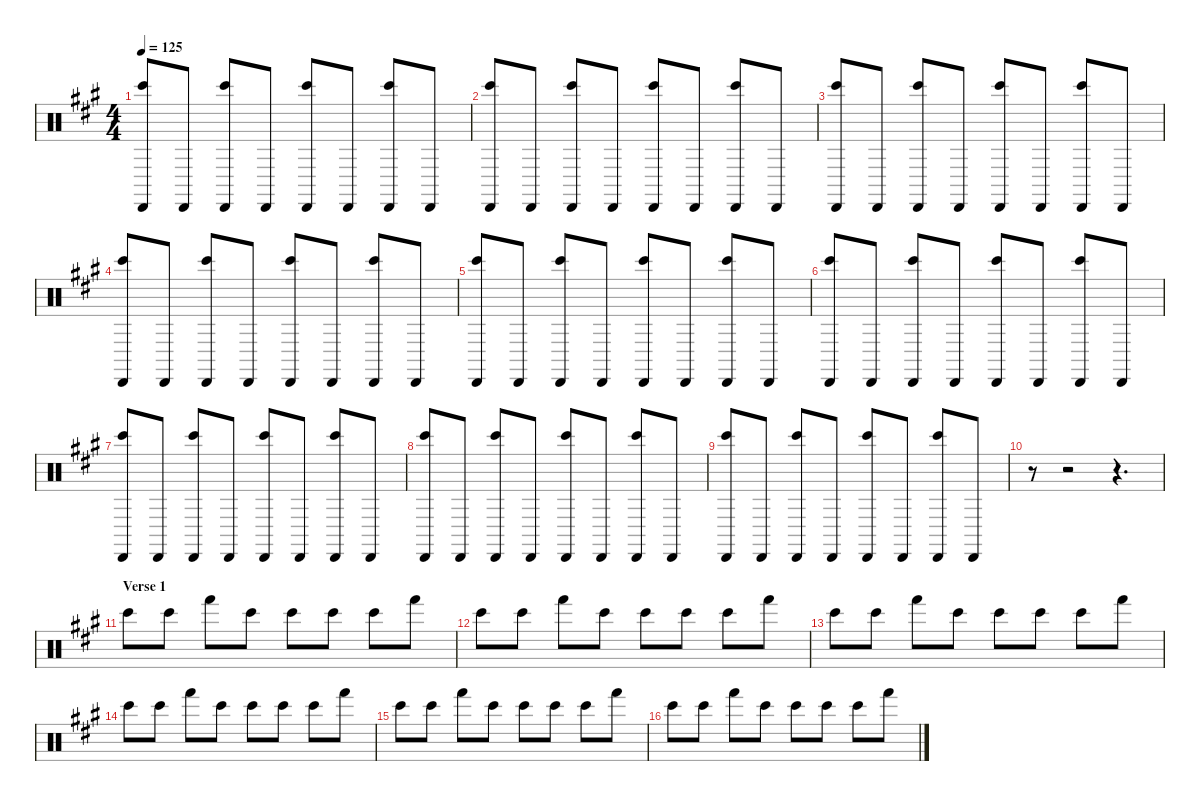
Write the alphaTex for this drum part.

\defaultSystemsLayout 4
\hideDynamics
\bracketExtendMode nobrackets
\singleTrackTrackNamePolicy hidden
\multiTrackTrackNamePolicy hidden
\otherSystemsTrackNameOrientation horizontal
\track ("Percussion" "drm.") {instrument percussion}
\staff {score}
\articulation defaults
\ts (4 4)
\tempo 125
\clef neutral
\ks a
("Cabasa (hit)"{acc forcenatural} "Bongo High (hit)"{acc forcenatural}).8{dy f beam Up} "Cabasa (hit)"{acc forcenatural}.8{beam Up} ("Cabasa (hit)"{acc forcenatural} "Bongo High (hit)"{acc forcenatural}).8{beam Up} "Cabasa (hit)"{acc forcenatural}.8{beam Up} ("Cabasa (hit)"{acc forcenatural} "Bongo High (hit)"{acc forcenatural}).8{beam Up} "Cabasa (hit)"{acc forcenatural}.8{beam Up} ("Cabasa (hit)"{acc forcenatural} "Bongo High (hit)"{acc forcenatural}).8{beam Up} "Cabasa (hit)"{acc forcenatural}.8{beam Up} |
("Cabasa (hit)"{acc forcenatural} "Bongo High (hit)"{acc forcenatural}).8{beam Up} "Cabasa (hit)"{acc forcenatural}.8{beam Up} ("Cabasa (hit)"{acc forcenatural} "Bongo High (hit)"{acc forcenatural}).8{beam Up} "Cabasa (hit)"{acc forcenatural}.8{beam Up} ("Cabasa (hit)"{acc forcenatural} "Bongo High (hit)"{acc forcenatural}).8{beam Up} "Cabasa (hit)"{acc forcenatural}.8{beam Up} ("Cabasa (hit)"{acc forcenatural} "Bongo High (hit)"{acc forcenatural}).8{beam Up} "Cabasa (hit)"{acc forcenatural}.8{beam Up} |
("Cabasa (hit)"{acc forcenatural} "Bongo High (hit)"{acc forcenatural}).8{beam Up} "Cabasa (hit)"{acc forcenatural}.8{beam Up} ("Cabasa (hit)"{acc forcenatural} "Bongo High (hit)"{acc forcenatural}).8{beam Up} "Cabasa (hit)"{acc forcenatural}.8{beam Up} ("Cabasa (hit)"{acc forcenatural} "Bongo High (hit)"{acc forcenatural}).8{beam Up} "Cabasa (hit)"{acc forcenatural}.8{beam Up} ("Cabasa (hit)"{acc forcenatural} "Bongo High (hit)"{acc forcenatural}).8{beam Up} "Cabasa (hit)"{acc forcenatural}.8{beam Up} |
("Cabasa (hit)"{acc forcenatural} "Bongo High (hit)"{acc forcenatural}).8{beam Up} "Cabasa (hit)"{acc forcenatural}.8{beam Up} ("Cabasa (hit)"{acc forcenatural} "Bongo High (hit)"{acc forcenatural}).8{beam Up} "Cabasa (hit)"{acc forcenatural}.8{beam Up} ("Cabasa (hit)"{acc forcenatural} "Bongo High (hit)"{acc forcenatural}).8{beam Up} "Cabasa (hit)"{acc forcenatural}.8{beam Up} ("Cabasa (hit)"{acc forcenatural} "Bongo High (hit)"{acc forcenatural}).8{beam Up} "Cabasa (hit)"{acc forcenatural}.8{beam Up} |
("Cabasa (hit)"{acc forcenatural} "Bongo High (hit)"{acc forcenatural}).8{beam Up} "Cabasa (hit)"{acc forcenatural}.8{beam Up} ("Cabasa (hit)"{acc forcenatural} "Bongo High (hit)"{acc forcenatural}).8{beam Up} "Cabasa (hit)"{acc forcenatural}.8{beam Up} ("Cabasa (hit)"{acc forcenatural} "Bongo High (hit)"{acc forcenatural}).8{beam Up} "Cabasa (hit)"{acc forcenatural}.8{beam Up} ("Cabasa (hit)"{acc forcenatural} "Bongo High (hit)"{acc forcenatural}).8{beam Up} "Cabasa (hit)"{acc forcenatural}.8{beam Up} |
("Cabasa (hit)"{acc forcenatural} "Bongo High (hit)"{acc forcenatural}).8{beam Up} "Cabasa (hit)"{acc forcenatural}.8{beam Up} ("Cabasa (hit)"{acc forcenatural} "Bongo High (hit)"{acc forcenatural}).8{beam Up} "Cabasa (hit)"{acc forcenatural}.8{beam Up} ("Cabasa (hit)"{acc forcenatural} "Bongo High (hit)"{acc forcenatural}).8{beam Up} "Cabasa (hit)"{acc forcenatural}.8{beam Up} ("Cabasa (hit)"{acc forcenatural} "Bongo High (hit)"{acc forcenatural}).8{beam Up} "Cabasa (hit)"{acc forcenatural}.8{beam Up} |
("Cabasa (hit)"{acc forcenatural} "Bongo High (hit)"{acc forcenatural}).8{beam Up} "Cabasa (hit)"{acc forcenatural}.8{beam Up} ("Cabasa (hit)"{acc forcenatural} "Bongo High (hit)"{acc forcenatural}).8{beam Up} "Cabasa (hit)"{acc forcenatural}.8{beam Up} ("Cabasa (hit)"{acc forcenatural} "Bongo High (hit)"{acc forcenatural}).8{beam Up} "Cabasa (hit)"{acc forcenatural}.8{beam Up} ("Cabasa (hit)"{acc forcenatural} "Bongo High (hit)"{acc forcenatural}).8{beam Up} "Cabasa (hit)"{acc forcenatural}.8{beam Up} |
("Cabasa (hit)"{acc forcenatural} "Bongo High (hit)"{acc forcenatural}).8{beam Up} "Cabasa (hit)"{acc forcenatural}.8{beam Up} ("Cabasa (hit)"{acc forcenatural} "Bongo High (hit)"{acc forcenatural}).8{beam Up} "Cabasa (hit)"{acc forcenatural}.8{beam Up} ("Cabasa (hit)"{acc forcenatural} "Bongo High (hit)"{acc forcenatural}).8{beam Up} "Cabasa (hit)"{acc forcenatural}.8{beam Up} ("Cabasa (hit)"{acc forcenatural} "Bongo High (hit)"{acc forcenatural}).8{beam Up} "Cabasa (hit)"{acc forcenatural}.8{beam Up} |
("Cabasa (hit)"{acc forcenatural} "Bongo High (hit)"{acc forcenatural}).8{beam Up} "Cabasa (hit)"{acc forcenatural}.8{beam Up} ("Cabasa (hit)"{acc forcenatural} "Bongo High (hit)"{acc forcenatural}).8{beam Up} "Cabasa (hit)"{acc forcenatural}.8{beam Up} ("Cabasa (hit)"{acc forcenatural} "Bongo High (hit)"{acc forcenatural}).8{beam Up} "Cabasa (hit)"{acc forcenatural}.8{beam Up} ("Cabasa (hit)"{acc forcenatural} "Bongo High (hit)"{acc forcenatural}).8{beam Up} "Cabasa (hit)"{acc forcenatural}.8{beam Up} |
r.8{beam Down} r.2{beam Down} r.4{d beam Down} |
\section ("" "Verse 1")
"Bongo High (hit)"{acc forcenatural}.8{beam Down} "Bongo High (hit)"{acc forcenatural}.8{beam Down} "Hand (hit)"{acc forcenatural}.8{beam Down} "Bongo High (hit)"{acc forcenatural}.8{beam Down} "Bongo High (hit)"{acc forcenatural}.8{beam Down} "Bongo High (hit)"{acc forcenatural}.8{beam Down} "Bongo High (hit)"{acc forcenatural}.8{beam Down} "Hand (hit)"{acc forcenatural}.8{beam Down} |
"Bongo High (hit)"{acc forcenatural}.8{beam Down} "Bongo High (hit)"{acc forcenatural}.8{beam Down} "Hand (hit)"{acc forcenatural}.8{beam Down} "Bongo High (hit)"{acc forcenatural}.8{beam Down} "Bongo High (hit)"{acc forcenatural}.8{beam Down} "Bongo High (hit)"{acc forcenatural}.8{beam Down} "Bongo High (hit)"{acc forcenatural}.8{beam Down} "Hand (hit)"{acc forcenatural}.8{beam Down} |
"Bongo High (hit)"{acc forcenatural}.8{beam Down} "Bongo High (hit)"{acc forcenatural}.8{beam Down} "Hand (hit)"{acc forcenatural}.8{beam Down} "Bongo High (hit)"{acc forcenatural}.8{beam Down} "Bongo High (hit)"{acc forcenatural}.8{beam Down} "Bongo High (hit)"{acc forcenatural}.8{beam Down} "Bongo High (hit)"{acc forcenatural}.8{beam Down} "Hand (hit)"{acc forcenatural}.8{beam Down} |
"Bongo High (hit)"{acc forcenatural}.8{beam Down} "Bongo High (hit)"{acc forcenatural}.8{beam Down} "Hand (hit)"{acc forcenatural}.8{beam Down} "Bongo High (hit)"{acc forcenatural}.8{beam Down} "Bongo High (hit)"{acc forcenatural}.8{beam Down} "Bongo High (hit)"{acc forcenatural}.8{beam Down} "Bongo High (hit)"{acc forcenatural}.8{beam Down} "Hand (hit)"{acc forcenatural}.8{beam Down} |
"Bongo High (hit)"{acc forcenatural}.8{beam Down} "Bongo High (hit)"{acc forcenatural}.8{beam Down} "Hand (hit)"{acc forcenatural}.8{beam Down} "Bongo High (hit)"{acc forcenatural}.8{beam Down} "Bongo High (hit)"{acc forcenatural}.8{beam Down} "Bongo High (hit)"{acc forcenatural}.8{beam Down} "Bongo High (hit)"{acc forcenatural}.8{beam Down} "Hand (hit)"{acc forcenatural}.8{beam Down} |
"Bongo High (hit)"{acc forcenatural}.8{beam Down} "Bongo High (hit)"{acc forcenatural}.8{beam Down} "Hand (hit)"{acc forcenatural}.8{beam Down} "Bongo High (hit)"{acc forcenatural}.8{beam Down} "Bongo High (hit)"{acc forcenatural}.8{beam Down} "Bongo High (hit)"{acc forcenatural}.8{beam Down} "Bongo High (hit)"{acc forcenatural}.8{beam Down} "Hand (hit)"{acc forcenatural}.8{beam Down}
